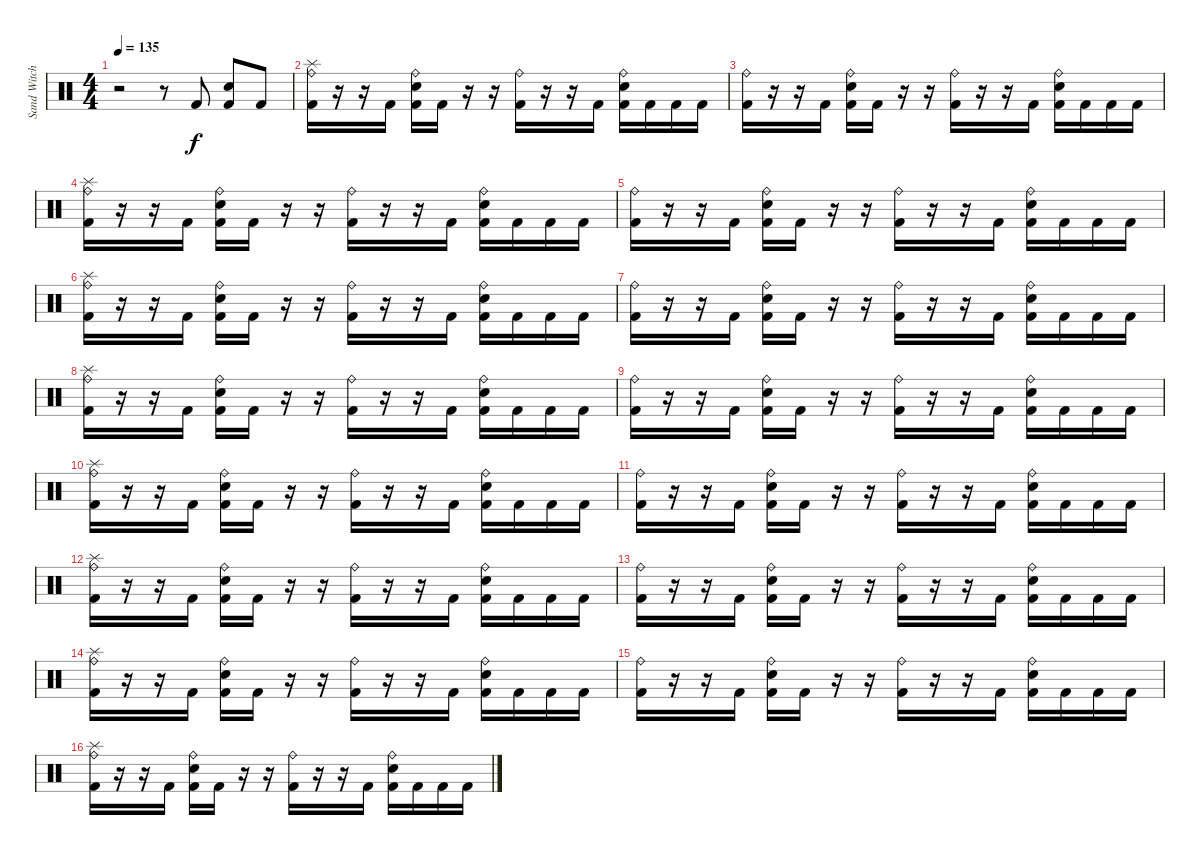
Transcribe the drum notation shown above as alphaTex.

\track ("Sand Witch" "Sand Witch") {instrument percussion}
\staff {score}
\articulation defaults
\ts (4 4)
\tempo 135
\clef neutral
\ks c
r.2{dy f} r.8 "Kick (hit) 2".8 ("Snare (hit) 2" "Kick (hit) 2").8 "Kick (hit) 2".8 |
("Ride (bell)" "Splash (hit)" "Kick (hit) 2").16 r.16 r.16 "Kick (hit) 2".16 ("Ride (bell)" "Snare (hit) 2" "Kick (hit) 2").16 "Kick (hit) 2".16 r.16 r.16 ("Ride (bell)" "Kick (hit) 2").16 r.16 r.16 "Kick (hit) 2".16 ("Ride (bell)" "Snare (hit) 2" "Kick (hit) 2").16 "Kick (hit) 2".16 "Kick (hit) 2".16 "Kick (hit) 2".16 |
("Ride (bell)" "Kick (hit) 2").16 r.16 r.16 "Kick (hit) 2".16 ("Ride (bell)" "Snare (hit) 2" "Kick (hit) 2").16 "Kick (hit) 2".16 r.16 r.16 ("Ride (bell)" "Kick (hit) 2").16 r.16 r.16 "Kick (hit) 2".16 ("Ride (bell)" "Snare (hit) 2" "Kick (hit) 2").16 "Kick (hit) 2".16 "Kick (hit) 2".16 "Kick (hit) 2".16 |
("Ride (bell)" "Splash (hit)" "Kick (hit) 2").16 r.16 r.16 "Kick (hit) 2".16 ("Ride (bell)" "Snare (hit) 2" "Kick (hit) 2").16 "Kick (hit) 2".16 r.16 r.16 ("Ride (bell)" "Kick (hit) 2").16 r.16 r.16 "Kick (hit) 2".16 ("Ride (bell)" "Snare (hit) 2" "Kick (hit) 2").16 "Kick (hit) 2".16 "Kick (hit) 2".16 "Kick (hit) 2".16 |
("Ride (bell)" "Kick (hit) 2").16 r.16 r.16 "Kick (hit) 2".16 ("Ride (bell)" "Snare (hit) 2" "Kick (hit) 2").16 "Kick (hit) 2".16 r.16 r.16 ("Ride (bell)" "Kick (hit) 2").16 r.16 r.16 "Kick (hit) 2".16 ("Ride (bell)" "Snare (hit) 2" "Kick (hit) 2").16 "Kick (hit) 2".16 "Kick (hit) 2".16 "Kick (hit) 2".16 |
("Ride (bell)" "Splash (hit)" "Kick (hit) 2").16 r.16 r.16 "Kick (hit) 2".16 ("Ride (bell)" "Snare (hit) 2" "Kick (hit) 2").16 "Kick (hit) 2".16 r.16 r.16 ("Ride (bell)" "Kick (hit) 2").16 r.16 r.16 "Kick (hit) 2".16 ("Ride (bell)" "Snare (hit) 2" "Kick (hit) 2").16 "Kick (hit) 2".16 "Kick (hit) 2".16 "Kick (hit) 2".16 |
("Ride (bell)" "Kick (hit) 2").16 r.16 r.16 "Kick (hit) 2".16 ("Ride (bell)" "Snare (hit) 2" "Kick (hit) 2").16 "Kick (hit) 2".16 r.16 r.16 ("Ride (bell)" "Kick (hit) 2").16 r.16 r.16 "Kick (hit) 2".16 ("Ride (bell)" "Snare (hit) 2" "Kick (hit) 2").16 "Kick (hit) 2".16 "Kick (hit) 2".16 "Kick (hit) 2".16 |
("Ride (bell)" "Splash (hit)" "Kick (hit) 2").16 r.16 r.16 "Kick (hit) 2".16 ("Ride (bell)" "Snare (hit) 2" "Kick (hit) 2").16 "Kick (hit) 2".16 r.16 r.16 ("Ride (bell)" "Kick (hit) 2").16 r.16 r.16 "Kick (hit) 2".16 ("Ride (bell)" "Snare (hit) 2" "Kick (hit) 2").16 "Kick (hit) 2".16 "Kick (hit) 2".16 "Kick (hit) 2".16 |
("Ride (bell)" "Kick (hit) 2").16 r.16 r.16 "Kick (hit) 2".16 ("Ride (bell)" "Snare (hit) 2" "Kick (hit) 2").16 "Kick (hit) 2".16 r.16 r.16 ("Ride (bell)" "Kick (hit) 2").16 r.16 r.16 "Kick (hit) 2".16 ("Ride (bell)" "Snare (hit) 2" "Kick (hit) 2").16 "Kick (hit) 2".16 "Kick (hit) 2".16 "Kick (hit) 2".16 |
("Ride (bell)" "Splash (hit)" "Kick (hit) 2").16 r.16 r.16 "Kick (hit) 2".16 ("Ride (bell)" "Snare (hit) 2" "Kick (hit) 2").16 "Kick (hit) 2".16 r.16 r.16 ("Ride (bell)" "Kick (hit) 2").16 r.16 r.16 "Kick (hit) 2".16 ("Ride (bell)" "Snare (hit) 2" "Kick (hit) 2").16 "Kick (hit) 2".16 "Kick (hit) 2".16 "Kick (hit) 2".16 |
("Ride (bell)" "Kick (hit) 2").16 r.16 r.16 "Kick (hit) 2".16 ("Ride (bell)" "Snare (hit) 2" "Kick (hit) 2").16 "Kick (hit) 2".16 r.16 r.16 ("Ride (bell)" "Kick (hit) 2").16 r.16 r.16 "Kick (hit) 2".16 ("Ride (bell)" "Snare (hit) 2" "Kick (hit) 2").16 "Kick (hit) 2".16 "Kick (hit) 2".16 "Kick (hit) 2".16 |
("Ride (bell)" "Splash (hit)" "Kick (hit) 2").16 r.16 r.16 "Kick (hit) 2".16 ("Ride (bell)" "Snare (hit) 2" "Kick (hit) 2").16 "Kick (hit) 2".16 r.16 r.16 ("Ride (bell)" "Kick (hit) 2").16 r.16 r.16 "Kick (hit) 2".16 ("Ride (bell)" "Snare (hit) 2" "Kick (hit) 2").16 "Kick (hit) 2".16 "Kick (hit) 2".16 "Kick (hit) 2".16 |
("Ride (bell)" "Kick (hit) 2").16 r.16 r.16 "Kick (hit) 2".16 ("Ride (bell)" "Snare (hit) 2" "Kick (hit) 2").16 "Kick (hit) 2".16 r.16 r.16 ("Ride (bell)" "Kick (hit) 2").16 r.16 r.16 "Kick (hit) 2".16 ("Ride (bell)" "Snare (hit) 2" "Kick (hit) 2").16 "Kick (hit) 2".16 "Kick (hit) 2".16 "Kick (hit) 2".16 |
("Ride (bell)" "Splash (hit)" "Kick (hit) 2").16 r.16 r.16 "Kick (hit) 2".16 ("Ride (bell)" "Snare (hit) 2" "Kick (hit) 2").16 "Kick (hit) 2".16 r.16 r.16 ("Ride (bell)" "Kick (hit) 2").16 r.16 r.16 "Kick (hit) 2".16 ("Ride (bell)" "Snare (hit) 2" "Kick (hit) 2").16 "Kick (hit) 2".16 "Kick (hit) 2".16 "Kick (hit) 2".16 |
("Ride (bell)" "Kick (hit) 2").16 r.16 r.16 "Kick (hit) 2".16 ("Ride (bell)" "Snare (hit) 2" "Kick (hit) 2").16 "Kick (hit) 2".16 r.16 r.16 ("Ride (bell)" "Kick (hit) 2").16 r.16 r.16 "Kick (hit) 2".16 ("Ride (bell)" "Snare (hit) 2" "Kick (hit) 2").16 "Kick (hit) 2".16 "Kick (hit) 2".16 "Kick (hit) 2".16 |
("Ride (bell)" "Splash (hit)" "Kick (hit) 2").16 r.16 r.16 "Kick (hit) 2".16 ("Ride (bell)" "Snare (hit) 2" "Kick (hit) 2").16 "Kick (hit) 2".16 r.16 r.16 ("Ride (bell)" "Kick (hit) 2").16 r.16 r.16 "Kick (hit) 2".16 ("Ride (bell)" "Snare (hit) 2" "Kick (hit) 2").16 "Kick (hit) 2".16 "Kick (hit) 2".16 "Kick (hit) 2".16
